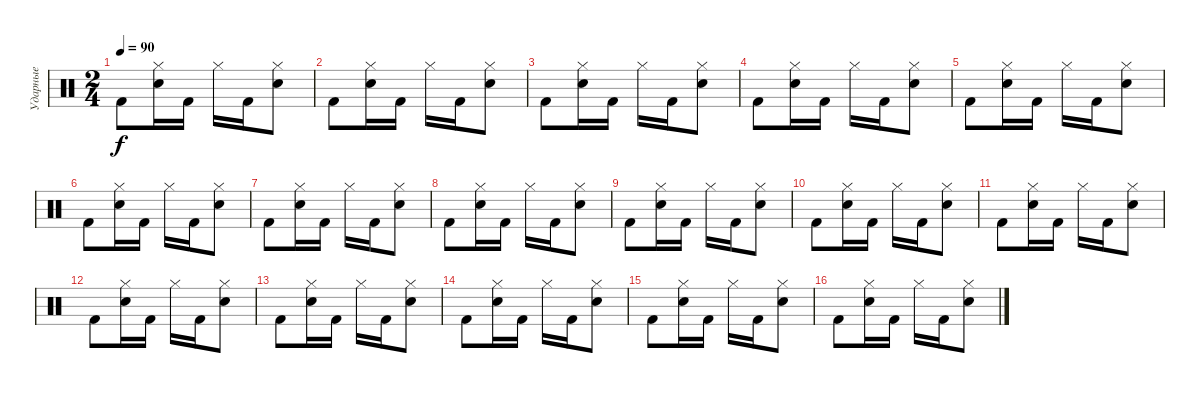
\track ("Ударные" "Ударные") {instrument percussion}
\staff {score}
\articulation defaults
\ts (2 4)
\tempo 90
\clef neutral
\ks c "Kick (hit) 2".8{dy f}
("Hi-Hat (closed)" "Snare (hit) 2").16 "Kick (hit) 2".16 "Hi-Hat (closed)".16 "Kick (hit) 2".16 ("Hi-Hat (closed)" "Snare (hit) 2").8 |
"Kick (hit) 2".8 ("Hi-Hat (closed)" "Snare (hit) 2").16 "Kick (hit) 2".16 "Hi-Hat (closed)".16 "Kick (hit) 2".16 ("Hi-Hat (closed)" "Snare (hit) 2").8 |
"Kick (hit) 2".8 ("Hi-Hat (closed)" "Snare (hit) 2").16 "Kick (hit) 2".16 "Hi-Hat (closed)".16 "Kick (hit) 2".16 ("Hi-Hat (closed)" "Snare (hit) 2").8 |
"Kick (hit) 2".8 ("Hi-Hat (closed)" "Snare (hit) 2").16 "Kick (hit) 2".16 "Hi-Hat (closed)".16 "Kick (hit) 2".16 ("Hi-Hat (closed)" "Snare (hit) 2").8 |
"Kick (hit) 2".8 ("Hi-Hat (closed)" "Snare (hit) 2").16 "Kick (hit) 2".16 "Hi-Hat (closed)".16 "Kick (hit) 2".16 ("Hi-Hat (closed)" "Snare (hit) 2").8 |
"Kick (hit) 2".8 ("Hi-Hat (closed)" "Snare (hit) 2").16 "Kick (hit) 2".16 "Hi-Hat (closed)".16 "Kick (hit) 2".16 ("Hi-Hat (closed)" "Snare (hit) 2").8 |
"Kick (hit) 2".8 ("Hi-Hat (closed)" "Snare (hit) 2").16 "Kick (hit) 2".16 "Hi-Hat (closed)".16 "Kick (hit) 2".16 ("Hi-Hat (closed)" "Snare (hit) 2").8 |
"Kick (hit) 2".8 ("Hi-Hat (closed)" "Snare (hit) 2").16 "Kick (hit) 2".16 "Hi-Hat (closed)".16 "Kick (hit) 2".16 ("Hi-Hat (closed)" "Snare (hit) 2").8 |
"Kick (hit) 2".8 ("Hi-Hat (closed)" "Snare (hit) 2").16 "Kick (hit) 2".16 "Hi-Hat (closed)".16 "Kick (hit) 2".16 ("Hi-Hat (closed)" "Snare (hit) 2").8 |
"Kick (hit) 2".8 ("Hi-Hat (closed)" "Snare (hit) 2").16 "Kick (hit) 2".16 "Hi-Hat (closed)".16 "Kick (hit) 2".16 ("Hi-Hat (closed)" "Snare (hit) 2").8 |
"Kick (hit) 2".8 ("Hi-Hat (closed)" "Snare (hit) 2").16 "Kick (hit) 2".16 "Hi-Hat (closed)".16 "Kick (hit) 2".16 ("Hi-Hat (closed)" "Snare (hit) 2").8 |
"Kick (hit) 2".8 ("Hi-Hat (closed)" "Snare (hit) 2").16 "Kick (hit) 2".16 "Hi-Hat (closed)".16 "Kick (hit) 2".16 ("Hi-Hat (closed)" "Snare (hit) 2").8 |
"Kick (hit) 2".8 ("Hi-Hat (closed)" "Snare (hit) 2").16 "Kick (hit) 2".16 "Hi-Hat (closed)".16 "Kick (hit) 2".16 ("Hi-Hat (closed)" "Snare (hit) 2").8 |
"Kick (hit) 2".8 ("Hi-Hat (closed)" "Snare (hit) 2").16 "Kick (hit) 2".16 "Hi-Hat (closed)".16 "Kick (hit) 2".16 ("Hi-Hat (closed)" "Snare (hit) 2").8 |
"Kick (hit) 2".8 ("Hi-Hat (closed)" "Snare (hit) 2").16 "Kick (hit) 2".16 "Hi-Hat (closed)".16 "Kick (hit) 2".16 ("Hi-Hat (closed)" "Snare (hit) 2").8 |
"Kick (hit) 2".8 ("Hi-Hat (closed)" "Snare (hit) 2").16 "Kick (hit) 2".16 "Hi-Hat (closed)".16 "Kick (hit) 2".16 ("Hi-Hat (closed)" "Snare (hit) 2").8
